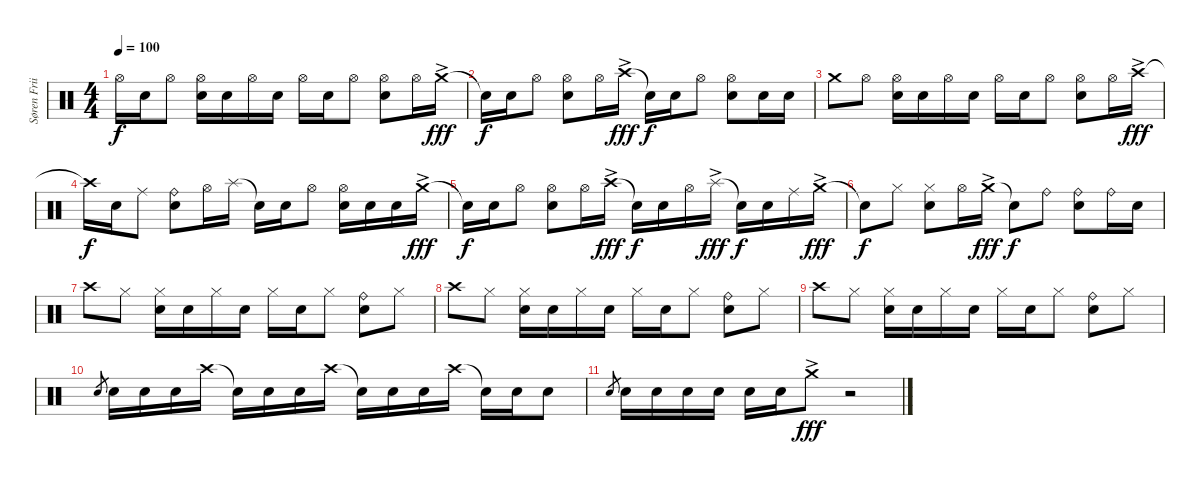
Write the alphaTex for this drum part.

\track ("Søren Friis (Drums)" "Søren Frii") {instrument percussion}
\staff {score}
\articulation defaults
\ts (4 4)
\tempo 100
\clef neutral
\ks c "Hi-Hat (open)".16{dy f} "Snare (hit) 2".16 "Hi-Hat (open)".8
("Hi-Hat (open)" "Snare (hit) 2").16 "Snare (hit) 2".16 "Hi-Hat (open)".16 "Snare (hit) 2".16 "Hi-Hat (open)".16 "Snare (hit) 2".16 "Hi-Hat (open)".8 ("Hi-Hat (open)" "Snare (hit) 2").8 "Hi-Hat (open)".16 "Crash medium (hit)"{ac}.16{dy fff} |
"Snare (hit)"{t}.16{dy f} "Snare (hit) 2".16 "Hi-Hat (open)".8 ("Hi-Hat (open)" "Snare (hit) 2").8 "Hi-Hat (open)".16 "Crash high (hit)"{ac}.16{dy fff} "Snare (hit)"{t}.16{dy f} "Snare (hit) 2".16 "Hi-Hat (open)".8 ("Hi-Hat (open)" "Snare (hit) 2").8 "Snare (hit) 2".16 "Snare (hit) 2".16 |
"Crash medium (hit)".8 "Hi-Hat (open)".8 ("Hi-Hat (open)" "Snare (hit) 2").16 "Snare (hit) 2".16 "Hi-Hat (open)".16 "Snare (hit) 2".16 "Hi-Hat (open)".16 "Snare (hit) 2".16 "Hi-Hat (open)".8 ("Hi-Hat (open)" "Snare (hit) 2").8 "Hi-Hat (open)".16 "Crash high (hit)"{ac}.16{dy fff} |
"Crash high (hit)"{t}.16{dy f} "Snare (hit) 2".16 "Ride (middle)".8 ("Ride (bell)" "Snare (hit) 2").8 "Hi-Hat (open)".16 "Splash (hit)".16 "Snare (hit)"{t}.16 "Snare (hit) 2".16 "Hi-Hat (open)".8 ("Hi-Hat (open)" "Snare (hit) 2").16 "Snare (hit) 2".16 "Snare (hit) 2".16 "Crash medium (hit)"{ac}.16{dy fff} |
"Snare (hit) 2"{t}.16{dy f} "Snare (hit) 2".16 "Hi-Hat (open)".8 ("Hi-Hat (open)" "Snare (hit) 2").8 "Hi-Hat (open)".16 "Crash high (hit)"{ac}.16{dy fff} "Snare (hit)"{t}.16{dy f} "Snare (hit) 2".16 "Hi-Hat (open)".16 "Splash (hit)"{ac}.16{dy fff} "Snare (hit)"{t}.16{dy f} "Snare (hit) 2".16 "Ride (middle)".16 "Crash medium (hit)"{ac}.16{dy fff} |
"Snare (hit)"{t}.8{dy f} "Hi-Hat (closed)".8 ("Hi-Hat (closed)" "Snare (hit) 2").8 "Hi-Hat (open)".16 "Crash medium (hit)"{ac}.16{dy fff} "Snare (hit)"{t}.8{dy f} "Ride (bell)".8 ("Ride (bell)" "Snare (hit) 2").8 "Ride (bell)".16 "Snare (hit) 2".16 |
"Crash high (hit)".8 "Hi-Hat (closed)".8 ("Hi-Hat (closed)" "Snare (hit) 2").16 "Snare (hit) 2".16 "Hi-Hat (closed)".16 "Snare (hit) 2".16 "Hi-Hat (closed)".16 "Snare (hit) 2".16 "Hi-Hat (closed)".8 ("Ride (bell)" "Snare (hit) 2").8 "Hi-Hat (closed)".8 |
"Crash high (hit)".8 "Hi-Hat (closed)".8 ("Hi-Hat (closed)" "Snare (hit) 2").16 "Snare (hit) 2".16 "Hi-Hat (closed)".16 "Snare (hit) 2".16 "Hi-Hat (closed)".16 "Snare (hit) 2".16 "Hi-Hat (closed)".8 ("Ride (bell)" "Snare (hit) 2").8 "Hi-Hat (closed)".8 |
"Crash high (hit)".8 "Hi-Hat (closed)".8 ("Hi-Hat (closed)" "Snare (hit) 2").16 "Snare (hit) 2".16 "Hi-Hat (closed)".16 "Snare (hit) 2".16 "Hi-Hat (closed)".16 "Snare (hit) 2".16 "Hi-Hat (closed)".8 ("Ride (bell)" "Snare (hit) 2").8 "Hi-Hat (closed)".8 |
"Snare (hit) 2".8{gr} "Snare (hit) 2".16 "Snare (hit) 2".16 "Snare (hit) 2".16 "Crash high (hit)".16 "Snare (hit)"{t}.16 "Snare (hit) 2".16 "Snare (hit) 2".16 "Crash high (hit)".16 "Snare (hit)"{t}.16 "Snare (hit) 2".16 "Snare (hit) 2".16 "Crash high (hit)".16 "Snare (hit) 2"{t}.16 "Snare (hit) 2".16 "Snare (hit) 2".8 |
"Snare (hit) 2".8{gr} "Snare (hit) 2".16 "Snare (hit) 2".16 "Snare (hit) 2".16 "Snare (hit) 2".16 "Snare (hit) 2".16 "Snare (hit) 2".16 "Crash medium (hit)"{ac}.8{dy fff} r.2
